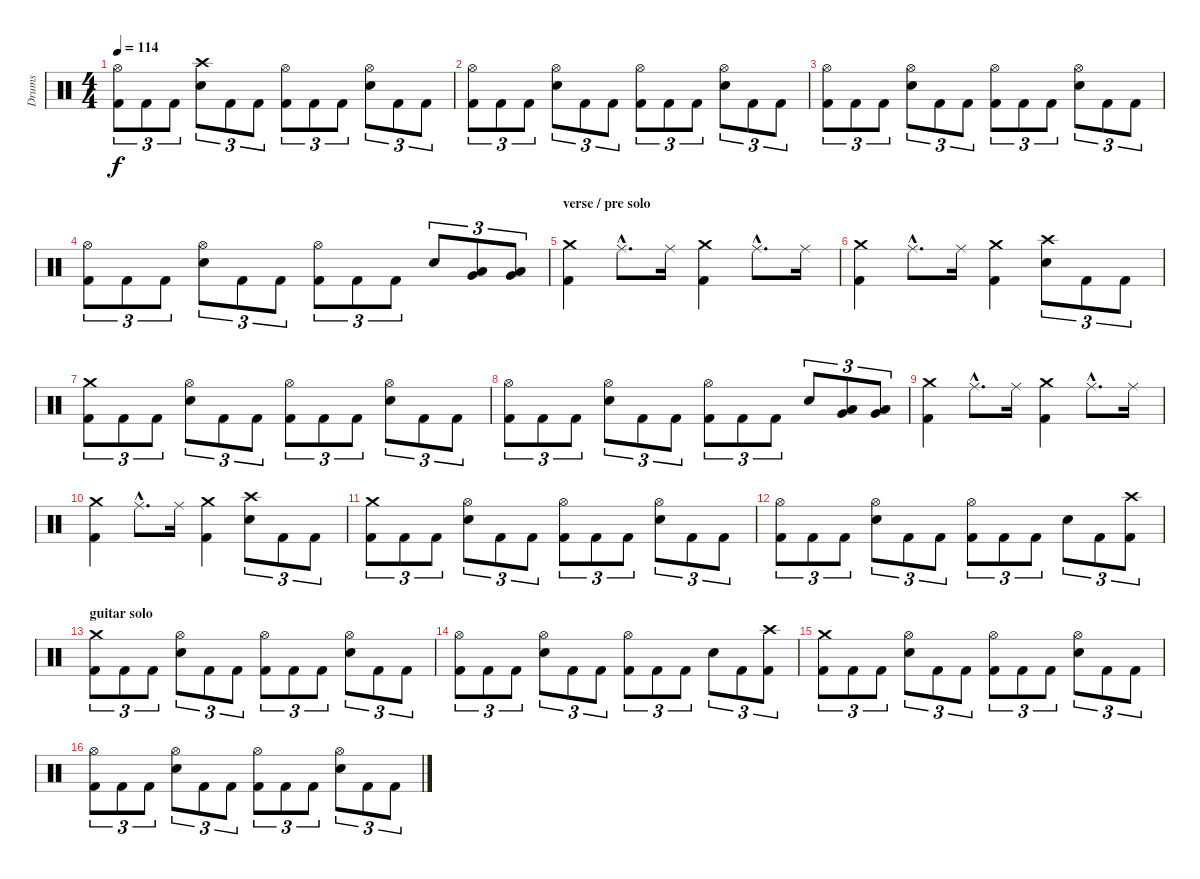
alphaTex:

\track ("Drums" "Drums") {instrument percussion}
\staff {score}
\articulation defaults
\ts (4 4)
\tempo 114
\clef neutral
\ks c
("Hi-Hat (open)" "Kick (hit) 2").8{tu (3 2) dy f} "Kick (hit) 2".8{tu (3 2)} "Kick (hit) 2".8{tu (3 2)} ("Crash high (hit)" "Snare (hit) 2").8{tu (3 2)} "Kick (hit) 2".8{tu (3 2)} "Kick (hit) 2".8{tu (3 2)} ("Hi-Hat (open)" "Kick (hit) 2").8{tu (3 2)} "Kick (hit) 2".8{tu (3 2)} "Kick (hit) 2".8{tu (3 2)} ("Hi-Hat (open)" "Snare (hit) 2").8{tu (3 2)} "Kick (hit) 2".8{tu (3 2)} "Kick (hit) 2".8{tu (3 2)} |
("Hi-Hat (open)" "Kick (hit) 2").8{tu (3 2)} "Kick (hit) 2".8{tu (3 2)} "Kick (hit) 2".8{tu (3 2)} ("Hi-Hat (open)" "Snare (hit) 2").8{tu (3 2)} "Kick (hit) 2".8{tu (3 2)} "Kick (hit) 2".8{tu (3 2)} ("Hi-Hat (open)" "Kick (hit) 2").8{tu (3 2)} "Kick (hit) 2".8{tu (3 2)} "Kick (hit) 2".8{tu (3 2)} ("Hi-Hat (open)" "Snare (hit) 2").8{tu (3 2)} "Kick (hit) 2".8{tu (3 2)} "Kick (hit) 2".8{tu (3 2)} |
("Hi-Hat (open)" "Kick (hit) 2").8{tu (3 2)} "Kick (hit) 2".8{tu (3 2)} "Kick (hit) 2".8{tu (3 2)} ("Hi-Hat (open)" "Snare (hit) 2").8{tu (3 2)} "Kick (hit) 2".8{tu (3 2)} "Kick (hit) 2".8{tu (3 2)} ("Hi-Hat (open)" "Kick (hit) 2").8{tu (3 2)} "Kick (hit) 2".8{tu (3 2)} "Kick (hit) 2".8{tu (3 2)} ("Hi-Hat (open)" "Snare (hit) 2").8{tu (3 2)} "Kick (hit) 2".8{tu (3 2)} "Kick (hit) 2".8{tu (3 2)} |
("Hi-Hat (open)" "Kick (hit) 2").8{tu (3 2)} "Kick (hit) 2".8{tu (3 2)} "Kick (hit) 2".8{tu (3 2)} ("Hi-Hat (open)" "Snare (hit) 2").8{tu (3 2)} "Kick (hit) 2".8{tu (3 2)} "Kick (hit) 2".8{tu (3 2)} ("Hi-Hat (open)" "Kick (hit) 2").8{tu (3 2)} "Kick (hit) 2".8{tu (3 2)} "Kick (hit) 2".8{tu (3 2)} "Snare (hit) 2".8{tu (3 2)} ("Low Tom (hit)" "Very Low Tom (hit)").8{tu (3 2)} ("Low Tom (hit)" "Very Low Tom (hit)").8{tu (3 2)} |
\section ("" "verse / pre solo")
("Crash medium (hit)" "Kick (hit) 2").4 "Ride (middle)"{hac}.8{d} "Ride (middle)".16 ("Crash medium (hit)" "Kick (hit) 2").4 "Ride (middle)"{hac}.8{d} "Ride (middle)".16 |
("Crash medium (hit)" "Kick (hit) 2").4 "Ride (middle)"{hac}.8{d} "Ride (middle)".16 ("Crash medium (hit)" "Kick (hit) 2").4 ("Crash high (hit)" "Snare (hit) 2").8{tu (3 2)} "Kick (hit) 2".8{tu (3 2)} "Kick (hit) 2".8{tu (3 2)} |
("Crash medium (hit)" "Kick (hit) 2").8{tu (3 2)} "Kick (hit) 2".8{tu (3 2)} "Kick (hit) 2".8{tu (3 2)} ("Hi-Hat (open)" "Snare (hit) 2").8{tu (3 2)} "Kick (hit) 2".8{tu (3 2)} "Kick (hit) 2".8{tu (3 2)} ("Hi-Hat (open)" "Kick (hit) 2").8{tu (3 2)} "Kick (hit) 2".8{tu (3 2)} "Kick (hit) 2".8{tu (3 2)} ("Hi-Hat (open)" "Snare (hit) 2").8{tu (3 2)} "Kick (hit) 2".8{tu (3 2)} "Kick (hit) 2".8{tu (3 2)} |
("Hi-Hat (open)" "Kick (hit) 2").8{tu (3 2)} "Kick (hit) 2".8{tu (3 2)} "Kick (hit) 2".8{tu (3 2)} ("Hi-Hat (open)" "Snare (hit) 2").8{tu (3 2)} "Kick (hit) 2".8{tu (3 2)} "Kick (hit) 2".8{tu (3 2)} ("Hi-Hat (open)" "Kick (hit) 2").8{tu (3 2)} "Kick (hit) 2".8{tu (3 2)} "Kick (hit) 2".8{tu (3 2)} "Snare (hit) 2".8{tu (3 2)} ("Low Tom (hit)" "Very Low Tom (hit)").8{tu (3 2)} ("Low Tom (hit)" "Very Low Tom (hit)").8{tu (3 2)} |
("Crash medium (hit)" "Kick (hit) 2").4 "Ride (middle)"{hac}.8{d} "Ride (middle)".16 ("Crash medium (hit)" "Kick (hit) 2").4 "Ride (middle)"{hac}.8{d} "Ride (middle)".16 |
("Crash medium (hit)" "Kick (hit) 2").4 "Ride (middle)"{hac}.8{d} "Ride (middle)".16 ("Crash medium (hit)" "Kick (hit) 2").4 ("Crash high (hit)" "Snare (hit) 2").8{tu (3 2)} "Kick (hit) 2".8{tu (3 2)} "Kick (hit) 2".8{tu (3 2)} |
("Crash medium (hit)" "Kick (hit) 2").8{tu (3 2)} "Kick (hit) 2".8{tu (3 2)} "Kick (hit) 2".8{tu (3 2)} ("Hi-Hat (open)" "Snare (hit) 2").8{tu (3 2)} "Kick (hit) 2".8{tu (3 2)} "Kick (hit) 2".8{tu (3 2)} ("Hi-Hat (open)" "Kick (hit) 2").8{tu (3 2)} "Kick (hit) 2".8{tu (3 2)} "Kick (hit) 2".8{tu (3 2)} ("Hi-Hat (open)" "Snare (hit) 2").8{tu (3 2)} "Kick (hit) 2".8{tu (3 2)} "Kick (hit) 2".8{tu (3 2)} |
("Hi-Hat (open)" "Kick (hit) 2").8{tu (3 2)} "Kick (hit) 2".8{tu (3 2)} "Kick (hit) 2".8{tu (3 2)} ("Hi-Hat (open)" "Snare (hit) 2").8{tu (3 2)} "Kick (hit) 2".8{tu (3 2)} "Kick (hit) 2".8{tu (3 2)} ("Hi-Hat (open)" "Kick (hit) 2").8{tu (3 2)} "Kick (hit) 2".8{tu (3 2)} "Kick (hit) 2".8{tu (3 2)} "Snare (hit) 2".8{tu (3 2)} "Kick (hit) 2".8{tu (3 2)} ("Crash high (hit)" "Kick (hit) 2").8{tu (3 2)} |
\section ("" "guitar solo")
("Crash medium (hit)" "Kick (hit) 2").8{tu (3 2)} "Kick (hit) 2".8{tu (3 2)} "Kick (hit) 2".8{tu (3 2)} ("Hi-Hat (open)" "Snare (hit) 2").8{tu (3 2)} "Kick (hit) 2".8{tu (3 2)} "Kick (hit) 2".8{tu (3 2)} ("Hi-Hat (open)" "Kick (hit) 2").8{tu (3 2)} "Kick (hit) 2".8{tu (3 2)} "Kick (hit) 2".8{tu (3 2)} ("Hi-Hat (open)" "Snare (hit) 2").8{tu (3 2)} "Kick (hit) 2".8{tu (3 2)} "Kick (hit) 2".8{tu (3 2)} |
("Hi-Hat (open)" "Kick (hit) 2").8{tu (3 2)} "Kick (hit) 2".8{tu (3 2)} "Kick (hit) 2".8{tu (3 2)} ("Hi-Hat (open)" "Snare (hit) 2").8{tu (3 2)} "Kick (hit) 2".8{tu (3 2)} "Kick (hit) 2".8{tu (3 2)} ("Hi-Hat (open)" "Kick (hit) 2").8{tu (3 2)} "Kick (hit) 2".8{tu (3 2)} "Kick (hit) 2".8{tu (3 2)} "Snare (hit) 2".8{tu (3 2)} "Kick (hit) 2".8{tu (3 2)} ("Crash high (hit)" "Kick (hit) 2").8{tu (3 2)} |
("Crash medium (hit)" "Kick (hit) 2").8{tu (3 2)} "Kick (hit) 2".8{tu (3 2)} "Kick (hit) 2".8{tu (3 2)} ("Hi-Hat (open)" "Snare (hit) 2").8{tu (3 2)} "Kick (hit) 2".8{tu (3 2)} "Kick (hit) 2".8{tu (3 2)} ("Hi-Hat (open)" "Kick (hit) 2").8{tu (3 2)} "Kick (hit) 2".8{tu (3 2)} "Kick (hit) 2".8{tu (3 2)} ("Hi-Hat (open)" "Snare (hit) 2").8{tu (3 2)} "Kick (hit) 2".8{tu (3 2)} "Kick (hit) 2".8{tu (3 2)} |
("Hi-Hat (open)" "Kick (hit) 2").8{tu (3 2)} "Kick (hit) 2".8{tu (3 2)} "Kick (hit) 2".8{tu (3 2)} ("Hi-Hat (open)" "Snare (hit) 2").8{tu (3 2)} "Kick (hit) 2".8{tu (3 2)} "Kick (hit) 2".8{tu (3 2)} ("Hi-Hat (open)" "Kick (hit) 2").8{tu (3 2)} "Kick (hit) 2".8{tu (3 2)} "Kick (hit) 2".8{tu (3 2)} ("Hi-Hat (open)" "Snare (hit) 2").8{tu (3 2)} "Kick (hit) 2".8{tu (3 2)} "Kick (hit) 2".8{tu (3 2)}
